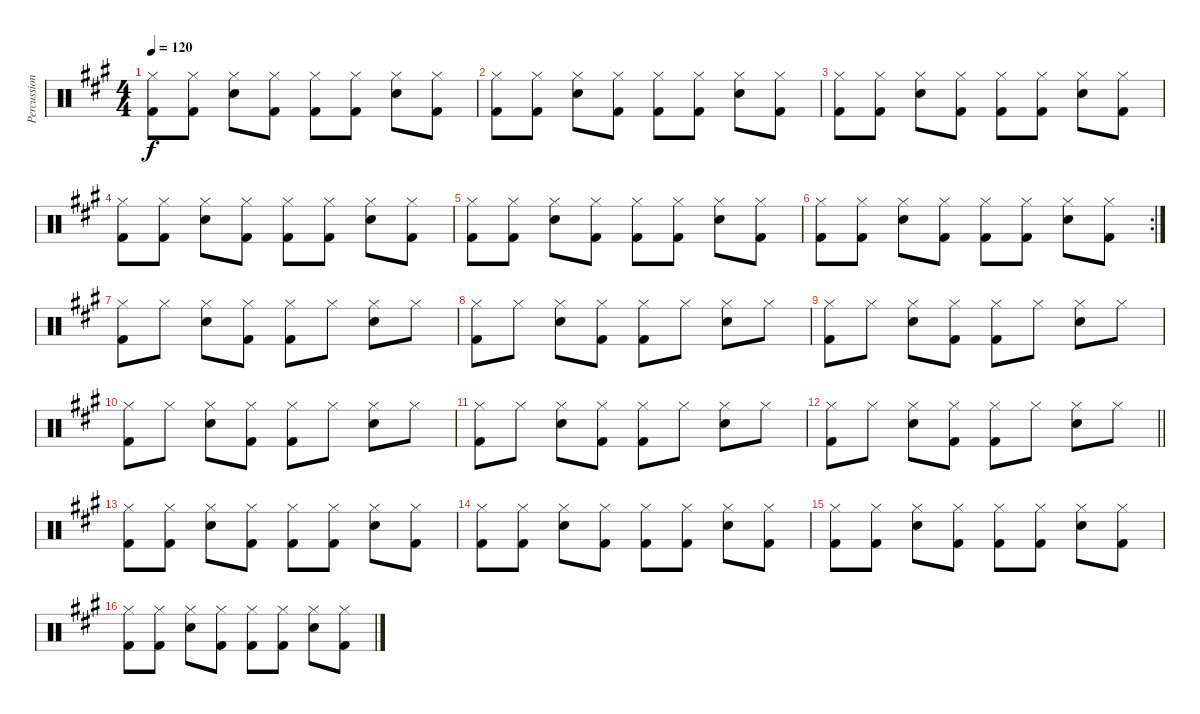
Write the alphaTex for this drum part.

\track ("Percussion" "Percussion") {instrument percussion}
\staff {score}
\articulation defaults
\ts (4 4)
\tempo 120
\clef neutral
\ks a
("Hi-Hat (closed)" "Kick (hit) 2").8{dy f} ("Hi-Hat (closed)" "Kick (hit) 2").8 ("Hi-Hat (closed)" "Snare (hit) 2").8 ("Hi-Hat (closed)" "Kick (hit) 2").8 ("Hi-Hat (closed)" "Kick (hit) 2").8 ("Hi-Hat (closed)" "Kick (hit) 2").8 ("Hi-Hat (closed)" "Snare (hit) 2").8 ("Hi-Hat (closed)" "Kick (hit) 2").8 |
("Hi-Hat (closed)" "Kick (hit) 2").8 ("Hi-Hat (closed)" "Kick (hit) 2").8 ("Hi-Hat (closed)" "Snare (hit) 2").8 ("Hi-Hat (closed)" "Kick (hit) 2").8 ("Hi-Hat (closed)" "Kick (hit) 2").8 ("Hi-Hat (closed)" "Kick (hit) 2").8 ("Hi-Hat (closed)" "Snare (hit) 2").8 ("Hi-Hat (closed)" "Kick (hit) 2").8 |
("Hi-Hat (closed)" "Kick (hit) 2").8 ("Hi-Hat (closed)" "Kick (hit) 2").8 ("Hi-Hat (closed)" "Snare (hit) 2").8 ("Hi-Hat (closed)" "Kick (hit) 2").8 ("Hi-Hat (closed)" "Kick (hit) 2").8 ("Hi-Hat (closed)" "Kick (hit) 2").8 ("Hi-Hat (closed)" "Snare (hit) 2").8 ("Hi-Hat (closed)" "Kick (hit) 2").8 |
("Hi-Hat (closed)" "Kick (hit) 2").8 ("Hi-Hat (closed)" "Kick (hit) 2").8 ("Hi-Hat (closed)" "Snare (hit) 2").8 ("Hi-Hat (closed)" "Kick (hit) 2").8 ("Hi-Hat (closed)" "Kick (hit) 2").8 ("Hi-Hat (closed)" "Kick (hit) 2").8 ("Hi-Hat (closed)" "Snare (hit) 2").8 ("Hi-Hat (closed)" "Kick (hit) 2").8 |
("Hi-Hat (closed)" "Kick (hit) 2").8 ("Hi-Hat (closed)" "Kick (hit) 2").8 ("Hi-Hat (closed)" "Snare (hit) 2").8 ("Hi-Hat (closed)" "Kick (hit) 2").8 ("Hi-Hat (closed)" "Kick (hit) 2").8 ("Hi-Hat (closed)" "Kick (hit) 2").8 ("Hi-Hat (closed)" "Snare (hit) 2").8 ("Hi-Hat (closed)" "Kick (hit) 2").8 |
\rc 2
("Hi-Hat (closed)" "Kick (hit) 2").8 ("Hi-Hat (closed)" "Kick (hit) 2").8 ("Hi-Hat (closed)" "Snare (hit) 2").8 ("Hi-Hat (closed)" "Kick (hit) 2").8 ("Hi-Hat (closed)" "Kick (hit) 2").8 ("Hi-Hat (closed)" "Kick (hit) 2").8 ("Hi-Hat (closed)" "Snare (hit) 2").8 ("Hi-Hat (closed)" "Kick (hit) 2").8 |
("Hi-Hat (closed)" "Kick (hit) 2").8 "Hi-Hat (closed)".8 ("Hi-Hat (closed)" "Snare (hit) 2").8 ("Hi-Hat (closed)" "Kick (hit) 2").8 ("Hi-Hat (closed)" "Kick (hit) 2").8 "Hi-Hat (closed)".8 ("Hi-Hat (closed)" "Snare (hit) 2").8 "Hi-Hat (closed)".8 |
("Hi-Hat (closed)" "Kick (hit) 2").8 "Hi-Hat (closed)".8 ("Hi-Hat (closed)" "Snare (hit) 2").8 ("Hi-Hat (closed)" "Kick (hit) 2").8 ("Hi-Hat (closed)" "Kick (hit) 2").8 "Hi-Hat (closed)".8 ("Hi-Hat (closed)" "Snare (hit) 2").8 "Hi-Hat (closed)".8 |
("Hi-Hat (closed)" "Kick (hit) 2").8 "Hi-Hat (closed)".8 ("Hi-Hat (closed)" "Snare (hit) 2").8 ("Hi-Hat (closed)" "Kick (hit) 2").8 ("Hi-Hat (closed)" "Kick (hit) 2").8 "Hi-Hat (closed)".8 ("Hi-Hat (closed)" "Snare (hit) 2").8 "Hi-Hat (closed)".8 |
("Hi-Hat (closed)" "Kick (hit) 2").8 "Hi-Hat (closed)".8 ("Hi-Hat (closed)" "Snare (hit) 2").8 ("Hi-Hat (closed)" "Kick (hit) 2").8 ("Hi-Hat (closed)" "Kick (hit) 2").8 "Hi-Hat (closed)".8 ("Hi-Hat (closed)" "Snare (hit) 2").8 "Hi-Hat (closed)".8 |
("Hi-Hat (closed)" "Kick (hit) 2").8 "Hi-Hat (closed)".8 ("Hi-Hat (closed)" "Snare (hit) 2").8 ("Hi-Hat (closed)" "Kick (hit) 2").8 ("Hi-Hat (closed)" "Kick (hit) 2").8 "Hi-Hat (closed)".8 ("Hi-Hat (closed)" "Snare (hit) 2").8 "Hi-Hat (closed)".8 |
\barLineRight lightlight
("Hi-Hat (closed)" "Kick (hit) 2").8 "Hi-Hat (closed)".8 ("Hi-Hat (closed)" "Snare (hit) 2").8 ("Hi-Hat (closed)" "Kick (hit) 2").8 ("Hi-Hat (closed)" "Kick (hit) 2").8 "Hi-Hat (closed)".8 ("Hi-Hat (closed)" "Snare (hit) 2").8 "Hi-Hat (closed)".8 |
("Hi-Hat (closed)" "Kick (hit) 2").8 ("Hi-Hat (closed)" "Kick (hit) 2").8 ("Hi-Hat (closed)" "Snare (hit) 2").8 ("Hi-Hat (closed)" "Kick (hit) 2").8 ("Hi-Hat (closed)" "Kick (hit) 2").8 ("Hi-Hat (closed)" "Kick (hit) 2").8 ("Hi-Hat (closed)" "Snare (hit) 2").8 ("Hi-Hat (closed)" "Kick (hit) 2").8 |
("Hi-Hat (closed)" "Kick (hit) 2").8 ("Hi-Hat (closed)" "Kick (hit) 2").8 ("Hi-Hat (closed)" "Snare (hit) 2").8 ("Hi-Hat (closed)" "Kick (hit) 2").8 ("Hi-Hat (closed)" "Kick (hit) 2").8 ("Hi-Hat (closed)" "Kick (hit) 2").8 ("Hi-Hat (closed)" "Snare (hit) 2").8 ("Hi-Hat (closed)" "Kick (hit) 2").8 |
("Hi-Hat (closed)" "Kick (hit) 2").8 ("Hi-Hat (closed)" "Kick (hit) 2").8 ("Hi-Hat (closed)" "Snare (hit) 2").8 ("Hi-Hat (closed)" "Kick (hit) 2").8 ("Hi-Hat (closed)" "Kick (hit) 2").8 ("Hi-Hat (closed)" "Kick (hit) 2").8 ("Hi-Hat (closed)" "Snare (hit) 2").8 ("Hi-Hat (closed)" "Kick (hit) 2").8 |
("Hi-Hat (closed)" "Kick (hit) 2").8 ("Hi-Hat (closed)" "Kick (hit) 2").8 ("Hi-Hat (closed)" "Snare (hit) 2").8 ("Hi-Hat (closed)" "Kick (hit) 2").8 ("Hi-Hat (closed)" "Kick (hit) 2").8 ("Hi-Hat (closed)" "Kick (hit) 2").8 ("Hi-Hat (closed)" "Snare (hit) 2").8 ("Hi-Hat (closed)" "Kick (hit) 2").8
